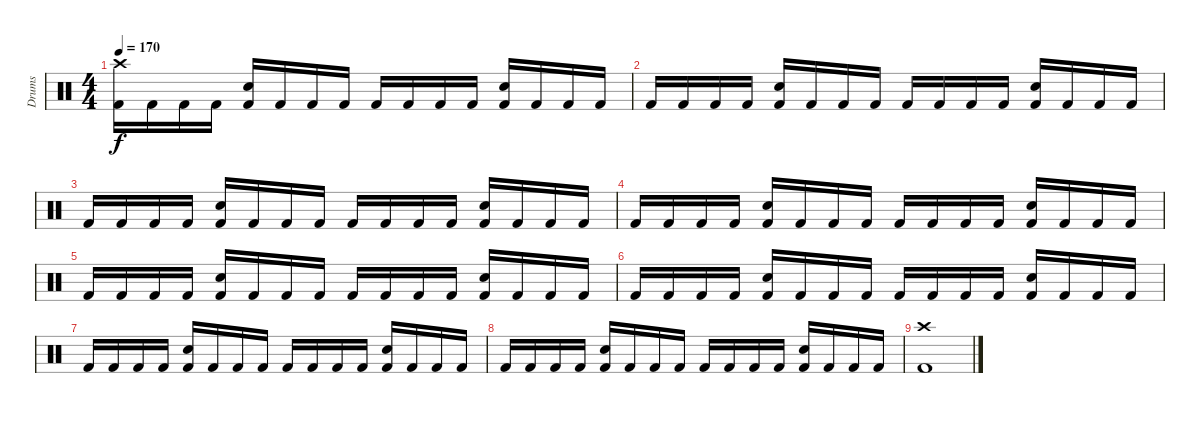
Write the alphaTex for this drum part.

\track ("Drums" "Drums") {instrument percussion}
\staff {score}
\articulation defaults
\ts (4 4)
\tempo 170
\clef neutral
\ks c
("Crash high (hit)" "Kick (hit) 2").16{dy f} "Kick (hit) 2".16 "Kick (hit) 2".16 "Kick (hit) 2".16 ("Snare (hit) 2" "Kick (hit) 2").16 "Kick (hit) 2".16 "Kick (hit) 2".16 "Kick (hit) 2".16 "Kick (hit) 2".16 "Kick (hit) 2".16 "Kick (hit) 2".16 "Kick (hit) 2".16 ("Snare (hit) 2" "Kick (hit) 2").16 "Kick (hit) 2".16 "Kick (hit) 2".16 "Kick (hit) 2".16 |
"Kick (hit) 2".16 "Kick (hit) 2".16 "Kick (hit) 2".16 "Kick (hit) 2".16 ("Snare (hit) 2" "Kick (hit) 2").16 "Kick (hit) 2".16 "Kick (hit) 2".16 "Kick (hit) 2".16 "Kick (hit) 2".16 "Kick (hit) 2".16 "Kick (hit) 2".16 "Kick (hit) 2".16 ("Snare (hit) 2" "Kick (hit) 2").16 "Kick (hit) 2".16 "Kick (hit) 2".16 "Kick (hit) 2".16 |
"Kick (hit) 2".16 "Kick (hit) 2".16 "Kick (hit) 2".16 "Kick (hit) 2".16 ("Snare (hit) 2" "Kick (hit) 2").16 "Kick (hit) 2".16 "Kick (hit) 2".16 "Kick (hit) 2".16 "Kick (hit) 2".16 "Kick (hit) 2".16 "Kick (hit) 2".16 "Kick (hit) 2".16 ("Snare (hit) 2" "Kick (hit) 2").16 "Kick (hit) 2".16 "Kick (hit) 2".16 "Kick (hit) 2".16 |
"Kick (hit) 2".16 "Kick (hit) 2".16 "Kick (hit) 2".16 "Kick (hit) 2".16 ("Snare (hit) 2" "Kick (hit) 2").16 "Kick (hit) 2".16 "Kick (hit) 2".16 "Kick (hit) 2".16 "Kick (hit) 2".16 "Kick (hit) 2".16 "Kick (hit) 2".16 "Kick (hit) 2".16 ("Snare (hit) 2" "Kick (hit) 2").16 "Kick (hit) 2".16 "Kick (hit) 2".16 "Kick (hit) 2".16 |
"Kick (hit) 2".16 "Kick (hit) 2".16 "Kick (hit) 2".16 "Kick (hit) 2".16 ("Snare (hit) 2" "Kick (hit) 2").16 "Kick (hit) 2".16 "Kick (hit) 2".16 "Kick (hit) 2".16 "Kick (hit) 2".16 "Kick (hit) 2".16 "Kick (hit) 2".16 "Kick (hit) 2".16 ("Snare (hit) 2" "Kick (hit) 2").16 "Kick (hit) 2".16 "Kick (hit) 2".16 "Kick (hit) 2".16 |
"Kick (hit) 2".16 "Kick (hit) 2".16 "Kick (hit) 2".16 "Kick (hit) 2".16 ("Snare (hit) 2" "Kick (hit) 2").16 "Kick (hit) 2".16 "Kick (hit) 2".16 "Kick (hit) 2".16 "Kick (hit) 2".16 "Kick (hit) 2".16 "Kick (hit) 2".16 "Kick (hit) 2".16 ("Snare (hit) 2" "Kick (hit) 2").16 "Kick (hit) 2".16 "Kick (hit) 2".16 "Kick (hit) 2".16 |
"Kick (hit) 2".16 "Kick (hit) 2".16 "Kick (hit) 2".16 "Kick (hit) 2".16 ("Snare (hit) 2" "Kick (hit) 2").16 "Kick (hit) 2".16 "Kick (hit) 2".16 "Kick (hit) 2".16 "Kick (hit) 2".16 "Kick (hit) 2".16 "Kick (hit) 2".16 "Kick (hit) 2".16 ("Snare (hit) 2" "Kick (hit) 2").16 "Kick (hit) 2".16 "Kick (hit) 2".16 "Kick (hit) 2".16 |
"Kick (hit) 2".16 "Kick (hit) 2".16 "Kick (hit) 2".16 "Kick (hit) 2".16 ("Snare (hit) 2" "Kick (hit) 2").16 "Kick (hit) 2".16 "Kick (hit) 2".16 "Kick (hit) 2".16 "Kick (hit) 2".16 "Kick (hit) 2".16 "Kick (hit) 2".16 "Kick (hit) 2".16 ("Snare (hit) 2" "Kick (hit) 2").16 "Kick (hit) 2".16 "Kick (hit) 2".16 "Kick (hit) 2".16 |
("Crash high (hit)" "Kick (hit) 2").1
